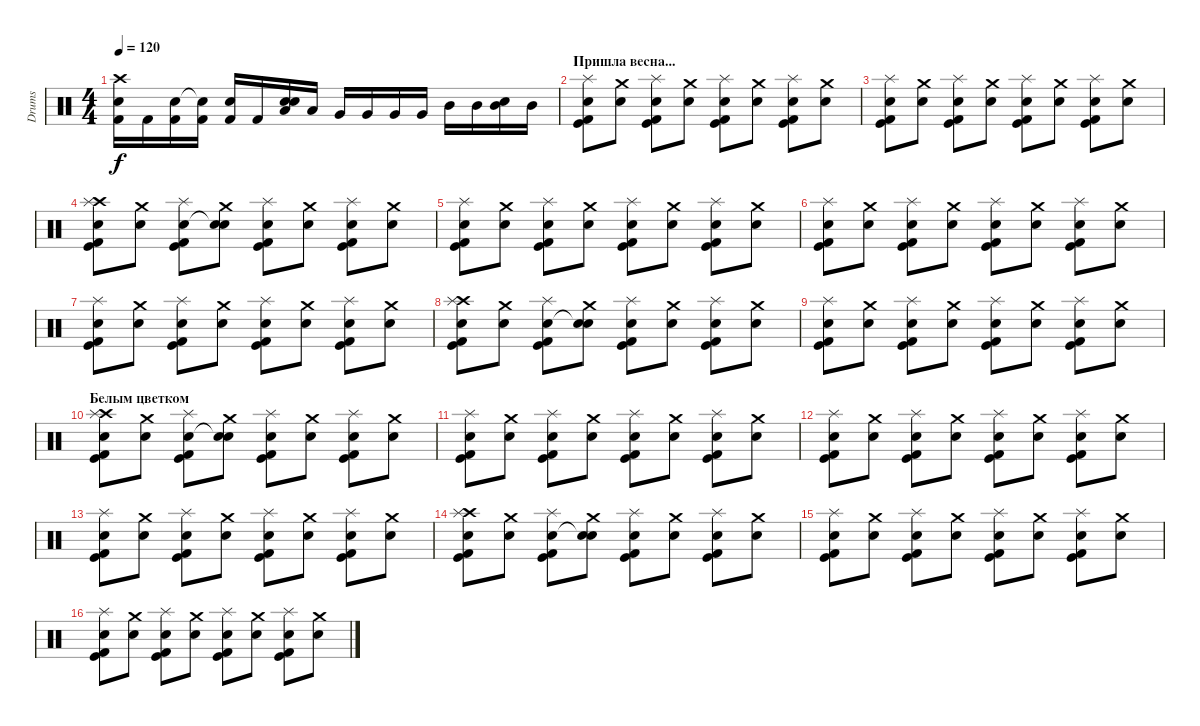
\track ("Drums" "Drums") {instrument percussion}
\staff {score}
\articulation defaults
\ts (4 4)
\tempo 120
\clef neutral
\ks c
("Crash high (hit)" "Snare (hit) 2" "Kick (hit) 2").16{dy f} "Kick (hit) 2".16 ("Snare (hit) 2" "Kick (hit) 2").16 ("Snare (hit)"{t} "Kick (hit) 2").16 ("Snare (hit) 2" "Kick (hit) 2").16 "Kick (hit) 2".16 ("Electric Snare (hit)" "Snare (hit) 2" "Low Floor Tom (hit)").16 "Low Floor Tom (hit)".16 "Very Low Tom (hit)".16 "Very Low Tom (hit)".16 "Very Low Tom (hit)".16 "Very Low Tom (hit)".16 "Mid Tom (hit)".16 "Mid Tom (hit)".16 ("Electric Snare (hit)" "Mid Tom (hit)").16 "Mid Tom (hit)".16 |
\section ("" "Пришла весна...")
("Kick (hit)" "Electric Snare (hit)" "Kick (hit) 2" "Splash (hit)").8 ("Crash medium (hit)" "Snare (hit) 2").8 ("Kick (hit)" "Electric Snare (hit)" "Kick (hit) 2" "Splash (hit)").8 ("Crash medium (hit)" "Snare (hit) 2").8 ("Kick (hit)" "Electric Snare (hit)" "Kick (hit) 2" "Splash (hit)").8 ("Crash medium (hit)" "Snare (hit) 2").8 ("Kick (hit)" "Electric Snare (hit)" "Kick (hit) 2" "Splash (hit)").8 ("Crash medium (hit)" "Snare (hit) 2").8 |
("Kick (hit)" "Electric Snare (hit)" "Kick (hit) 2" "Splash (hit)").8 ("Crash medium (hit)" "Snare (hit) 2").8 ("Kick (hit)" "Electric Snare (hit)" "Kick (hit) 2" "Splash (hit)").8 ("Crash medium (hit)" "Snare (hit) 2").8 ("Kick (hit)" "Electric Snare (hit)" "Kick (hit) 2" "Splash (hit)").8 ("Crash medium (hit)" "Snare (hit) 2").8 ("Kick (hit)" "Electric Snare (hit)" "Kick (hit) 2" "Splash (hit)").8 ("Crash medium (hit)" "Snare (hit) 2").8 |
("Kick (hit)" "Crash high (hit)" "Electric Snare (hit)" "Kick (hit) 2" "Splash (hit)").8 ("Crash medium (hit)" "Snare (hit) 2").8 ("Kick (hit)" "Electric Snare (hit)" "Kick (hit) 2" "Splash (hit)").8 ("Crash medium (hit)" "Snare (hit)"{t} "Snare (hit) 2").8 ("Kick (hit)" "Electric Snare (hit)" "Kick (hit) 2" "Splash (hit)").8 ("Crash medium (hit)" "Snare (hit) 2").8 ("Kick (hit)" "Electric Snare (hit)" "Kick (hit) 2" "Splash (hit)").8 ("Crash medium (hit)" "Snare (hit) 2").8 |
("Kick (hit)" "Electric Snare (hit)" "Kick (hit) 2" "Splash (hit)").8 ("Crash medium (hit)" "Snare (hit) 2").8 ("Kick (hit)" "Electric Snare (hit)" "Kick (hit) 2" "Splash (hit)").8 ("Crash medium (hit)" "Snare (hit) 2").8 ("Kick (hit)" "Electric Snare (hit)" "Kick (hit) 2" "Splash (hit)").8 ("Crash medium (hit)" "Snare (hit) 2").8 ("Kick (hit)" "Electric Snare (hit)" "Kick (hit) 2" "Splash (hit)").8 ("Crash medium (hit)" "Snare (hit) 2").8 |
("Kick (hit)" "Electric Snare (hit)" "Kick (hit) 2" "Splash (hit)").8 ("Crash medium (hit)" "Snare (hit) 2").8 ("Kick (hit)" "Electric Snare (hit)" "Kick (hit) 2" "Splash (hit)").8 ("Crash medium (hit)" "Snare (hit) 2").8 ("Kick (hit)" "Electric Snare (hit)" "Kick (hit) 2" "Splash (hit)").8 ("Crash medium (hit)" "Snare (hit) 2").8 ("Kick (hit)" "Electric Snare (hit)" "Kick (hit) 2" "Splash (hit)").8 ("Crash medium (hit)" "Snare (hit) 2").8 |
("Kick (hit)" "Electric Snare (hit)" "Kick (hit) 2" "Splash (hit)").8 ("Crash medium (hit)" "Snare (hit) 2").8 ("Kick (hit)" "Electric Snare (hit)" "Kick (hit) 2" "Splash (hit)").8 ("Crash medium (hit)" "Snare (hit) 2").8 ("Kick (hit)" "Electric Snare (hit)" "Kick (hit) 2" "Splash (hit)").8 ("Crash medium (hit)" "Snare (hit) 2").8 ("Kick (hit)" "Electric Snare (hit)" "Kick (hit) 2" "Splash (hit)").8 ("Crash medium (hit)" "Snare (hit) 2").8 |
("Kick (hit)" "Crash high (hit)" "Electric Snare (hit)" "Kick (hit) 2" "Splash (hit)").8 ("Crash medium (hit)" "Snare (hit) 2").8 ("Kick (hit)" "Electric Snare (hit)" "Kick (hit) 2" "Splash (hit)").8 ("Crash medium (hit)" "Snare (hit)"{t} "Snare (hit) 2").8 ("Kick (hit)" "Electric Snare (hit)" "Kick (hit) 2" "Splash (hit)").8 ("Crash medium (hit)" "Snare (hit) 2").8 ("Kick (hit)" "Electric Snare (hit)" "Kick (hit) 2" "Splash (hit)").8 ("Crash medium (hit)" "Snare (hit) 2").8 |
("Kick (hit)" "Electric Snare (hit)" "Kick (hit) 2" "Splash (hit)").8 ("Crash medium (hit)" "Snare (hit) 2").8 ("Kick (hit)" "Electric Snare (hit)" "Kick (hit) 2" "Splash (hit)").8 ("Crash medium (hit)" "Snare (hit) 2").8 ("Kick (hit)" "Electric Snare (hit)" "Kick (hit) 2" "Splash (hit)").8 ("Crash medium (hit)" "Snare (hit) 2").8 ("Kick (hit)" "Electric Snare (hit)" "Kick (hit) 2" "Splash (hit)").8 ("Crash medium (hit)" "Snare (hit) 2").8 |
\section ("" "Белым цветком")
("Kick (hit)" "Crash high (hit)" "Electric Snare (hit)" "Kick (hit) 2" "Splash (hit)").8 ("Crash medium (hit)" "Snare (hit) 2").8 ("Kick (hit)" "Electric Snare (hit)" "Kick (hit) 2" "Splash (hit)").8 ("Crash medium (hit)" "Snare (hit)"{t} "Snare (hit) 2").8 ("Kick (hit)" "Electric Snare (hit)" "Kick (hit) 2" "Splash (hit)").8 ("Crash medium (hit)" "Snare (hit) 2").8 ("Kick (hit)" "Electric Snare (hit)" "Kick (hit) 2" "Splash (hit)").8 ("Crash medium (hit)" "Snare (hit) 2").8 |
("Kick (hit)" "Electric Snare (hit)" "Kick (hit) 2" "Splash (hit)").8 ("Crash medium (hit)" "Snare (hit) 2").8 ("Kick (hit)" "Electric Snare (hit)" "Kick (hit) 2" "Splash (hit)").8 ("Crash medium (hit)" "Snare (hit) 2").8 ("Kick (hit)" "Electric Snare (hit)" "Kick (hit) 2" "Splash (hit)").8 ("Crash medium (hit)" "Snare (hit) 2").8 ("Kick (hit)" "Electric Snare (hit)" "Kick (hit) 2" "Splash (hit)").8 ("Crash medium (hit)" "Snare (hit) 2").8 |
("Kick (hit)" "Electric Snare (hit)" "Kick (hit) 2" "Splash (hit)").8 ("Crash medium (hit)" "Snare (hit) 2").8 ("Kick (hit)" "Electric Snare (hit)" "Kick (hit) 2" "Splash (hit)").8 ("Crash medium (hit)" "Snare (hit) 2").8 ("Kick (hit)" "Electric Snare (hit)" "Kick (hit) 2" "Splash (hit)").8 ("Crash medium (hit)" "Snare (hit) 2").8 ("Kick (hit)" "Electric Snare (hit)" "Kick (hit) 2" "Splash (hit)").8 ("Crash medium (hit)" "Snare (hit) 2").8 |
("Kick (hit)" "Electric Snare (hit)" "Kick (hit) 2" "Splash (hit)").8 ("Crash medium (hit)" "Snare (hit) 2").8 ("Kick (hit)" "Electric Snare (hit)" "Kick (hit) 2" "Splash (hit)").8 ("Crash medium (hit)" "Snare (hit) 2").8 ("Kick (hit)" "Electric Snare (hit)" "Kick (hit) 2" "Splash (hit)").8 ("Crash medium (hit)" "Snare (hit) 2").8 ("Kick (hit)" "Electric Snare (hit)" "Kick (hit) 2" "Splash (hit)").8 ("Crash medium (hit)" "Snare (hit) 2").8 |
("Kick (hit)" "Crash high (hit)" "Electric Snare (hit)" "Kick (hit) 2" "Splash (hit)").8 ("Crash medium (hit)" "Snare (hit) 2").8 ("Kick (hit)" "Electric Snare (hit)" "Kick (hit) 2" "Splash (hit)").8 ("Crash medium (hit)" "Snare (hit)"{t} "Snare (hit) 2").8 ("Kick (hit)" "Electric Snare (hit)" "Kick (hit) 2" "Splash (hit)").8 ("Crash medium (hit)" "Snare (hit) 2").8 ("Kick (hit)" "Electric Snare (hit)" "Kick (hit) 2" "Splash (hit)").8 ("Crash medium (hit)" "Snare (hit) 2").8 |
("Kick (hit)" "Electric Snare (hit)" "Kick (hit) 2" "Splash (hit)").8 ("Crash medium (hit)" "Snare (hit) 2").8 ("Kick (hit)" "Electric Snare (hit)" "Kick (hit) 2" "Splash (hit)").8 ("Crash medium (hit)" "Snare (hit) 2").8 ("Kick (hit)" "Electric Snare (hit)" "Kick (hit) 2" "Splash (hit)").8 ("Crash medium (hit)" "Snare (hit) 2").8 ("Kick (hit)" "Electric Snare (hit)" "Kick (hit) 2" "Splash (hit)").8 ("Crash medium (hit)" "Snare (hit) 2").8 |
("Kick (hit)" "Electric Snare (hit)" "Kick (hit) 2" "Splash (hit)").8 ("Crash medium (hit)" "Snare (hit) 2").8 ("Kick (hit)" "Electric Snare (hit)" "Kick (hit) 2" "Splash (hit)").8 ("Crash medium (hit)" "Snare (hit) 2").8 ("Kick (hit)" "Electric Snare (hit)" "Kick (hit) 2" "Splash (hit)").8 ("Crash medium (hit)" "Snare (hit) 2").8 ("Kick (hit)" "Electric Snare (hit)" "Kick (hit) 2" "Splash (hit)").8 ("Crash medium (hit)" "Snare (hit) 2").8
